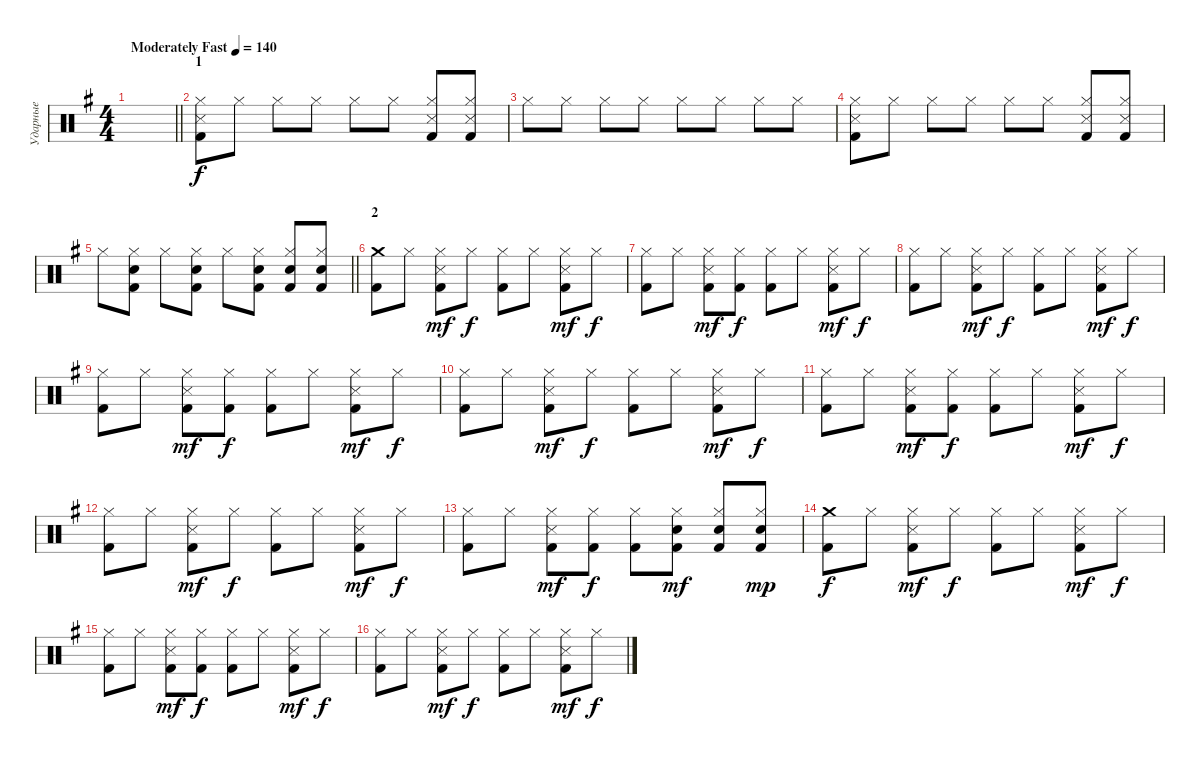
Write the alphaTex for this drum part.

\track ("Ударные" "Ударные") {instrument percussion}
\staff {score}
\articulation defaults
\ts (4 4)
\tempo (140 "Moderately Fast")
\clef neutral
\barLineRight lightlight
\ks g
|
\section ("" "1")
("Kick (hit) 2" "Hi-Hat (closed)" "Metronome (hit)").8 "Hi-Hat (closed)".8 "Hi-Hat (closed)".8 "Hi-Hat (closed)".8 "Hi-Hat (closed)".8 "Hi-Hat (closed)".8 ("Kick (hit) 2" "Hi-Hat (closed)" "Metronome (hit)").8 ("Kick (hit) 2" "Hi-Hat (closed)" "Metronome (hit)").8 |
"Hi-Hat (closed)".8 "Hi-Hat (closed)".8 "Hi-Hat (closed)".8 "Hi-Hat (closed)".8 "Hi-Hat (closed)".8 "Hi-Hat (closed)".8 "Hi-Hat (closed)".8 "Hi-Hat (closed)".8 |
("Kick (hit) 2" "Hi-Hat (closed)" "Metronome (hit)").8 "Hi-Hat (closed)".8 "Hi-Hat (closed)".8 "Hi-Hat (closed)".8 "Hi-Hat (closed)".8 "Hi-Hat (closed)".8 ("Kick (hit) 2" "Hi-Hat (closed)" "Metronome (hit)").8 ("Kick (hit) 2" "Hi-Hat (closed)" "Metronome (hit)").8 |
\barLineRight lightlight "Hi-Hat (closed)".8
("Kick (hit) 2" "Snare (hit) 2" "Hi-Hat (closed)").8 "Hi-Hat (closed)".8 ("Kick (hit) 2" "Snare (hit) 2" "Hi-Hat (closed)").8 "Hi-Hat (closed)".8 ("Kick (hit) 2" "Snare (hit) 2" "Hi-Hat (closed)").8 ("Kick (hit) 2" "Snare (hit) 2" "Hi-Hat (closed)").8 ("Kick (hit) 2" "Snare (hit) 2" "Hi-Hat (closed)").8 |
\section ("" "2")
("Kick (hit) 2" "Crash medium (hit)").8{dy f} "Hi-Hat (closed)".8 ("Kick (hit) 2" "Metronome (hit)" "Hi-Hat (closed)").8{dy mf} "Hi-Hat (closed)".8{dy f} ("Kick (hit) 2" "Hi-Hat (closed)").8 "Hi-Hat (closed)".8 ("Kick (hit) 2" "Metronome (hit)" "Hi-Hat (closed)").8{dy mf} "Hi-Hat (closed)".8{dy f} |
("Kick (hit) 2" "Hi-Hat (closed)").8 "Hi-Hat (closed)".8 ("Kick (hit) 2" "Metronome (hit)" "Hi-Hat (closed)").8{dy mf} ("Kick (hit) 2" "Hi-Hat (closed)").8{dy f} ("Kick (hit) 2" "Hi-Hat (closed)").8 "Hi-Hat (closed)".8 ("Kick (hit) 2" "Metronome (hit)" "Hi-Hat (closed)").8{dy mf} "Hi-Hat (closed)".8{dy f} |
("Kick (hit) 2" "Hi-Hat (closed)").8 "Hi-Hat (closed)".8 ("Kick (hit) 2" "Metronome (hit)" "Hi-Hat (closed)").8{dy mf} "Hi-Hat (closed)".8{dy f} ("Kick (hit) 2" "Hi-Hat (closed)").8 "Hi-Hat (closed)".8 ("Kick (hit) 2" "Metronome (hit)" "Hi-Hat (closed)").8{dy mf} "Hi-Hat (closed)".8{dy f} |
("Kick (hit) 2" "Hi-Hat (closed)").8 "Hi-Hat (closed)".8 ("Kick (hit) 2" "Metronome (hit)" "Hi-Hat (closed)").8{dy mf} ("Kick (hit) 2" "Hi-Hat (closed)").8{dy f} ("Kick (hit) 2" "Hi-Hat (closed)").8 "Hi-Hat (closed)".8 ("Kick (hit) 2" "Metronome (hit)" "Hi-Hat (closed)").8{dy mf} "Hi-Hat (closed)".8{dy f} |
("Kick (hit) 2" "Hi-Hat (closed)").8 "Hi-Hat (closed)".8 ("Kick (hit) 2" "Metronome (hit)" "Hi-Hat (closed)").8{dy mf} "Hi-Hat (closed)".8{dy f} ("Kick (hit) 2" "Hi-Hat (closed)").8 "Hi-Hat (closed)".8 ("Kick (hit) 2" "Metronome (hit)" "Hi-Hat (closed)").8{dy mf} "Hi-Hat (closed)".8{dy f} |
("Kick (hit) 2" "Hi-Hat (closed)").8 "Hi-Hat (closed)".8 ("Kick (hit) 2" "Metronome (hit)" "Hi-Hat (closed)").8{dy mf} ("Kick (hit) 2" "Hi-Hat (closed)").8{dy f} ("Kick (hit) 2" "Hi-Hat (closed)").8 "Hi-Hat (closed)".8 ("Kick (hit) 2" "Metronome (hit)" "Hi-Hat (closed)").8{dy mf} "Hi-Hat (closed)".8{dy f} |
("Kick (hit) 2" "Hi-Hat (closed)").8 "Hi-Hat (closed)".8 ("Kick (hit) 2" "Metronome (hit)" "Hi-Hat (closed)").8{dy mf} "Hi-Hat (closed)".8{dy f} ("Kick (hit) 2" "Hi-Hat (closed)").8 "Hi-Hat (closed)".8 ("Kick (hit) 2" "Metronome (hit)" "Hi-Hat (closed)").8{dy mf} "Hi-Hat (closed)".8{dy f} |
("Kick (hit) 2" "Hi-Hat (closed)").8 "Hi-Hat (closed)".8 ("Kick (hit) 2" "Metronome (hit)" "Hi-Hat (closed)").8{dy mf} ("Kick (hit) 2" "Hi-Hat (closed)").8{dy f} ("Kick (hit) 2" "Hi-Hat (closed)").8 ("Kick (hit) 2" "Snare (hit) 2" "Hi-Hat (closed)").8{dy mf} ("Kick (hit) 2" "Snare (hit) 2" "Hi-Hat (closed)").8 ("Kick (hit) 2" "Snare (hit) 2" "Hi-Hat (closed)").8{dy mp} |
("Kick (hit) 2" "Crash medium (hit)").8{dy f} "Hi-Hat (closed)".8 ("Kick (hit) 2" "Metronome (hit)" "Hi-Hat (closed)").8{dy mf} "Hi-Hat (closed)".8{dy f} ("Kick (hit) 2" "Hi-Hat (closed)").8 "Hi-Hat (closed)".8 ("Kick (hit) 2" "Metronome (hit)" "Hi-Hat (closed)").8{dy mf} "Hi-Hat (closed)".8{dy f} |
("Kick (hit) 2" "Hi-Hat (closed)").8 "Hi-Hat (closed)".8 ("Kick (hit) 2" "Metronome (hit)" "Hi-Hat (closed)").8{dy mf} ("Kick (hit) 2" "Hi-Hat (closed)").8{dy f} ("Kick (hit) 2" "Hi-Hat (closed)").8 "Hi-Hat (closed)".8 ("Kick (hit) 2" "Metronome (hit)" "Hi-Hat (closed)").8{dy mf} "Hi-Hat (closed)".8{dy f} |
("Kick (hit) 2" "Hi-Hat (closed)").8 "Hi-Hat (closed)".8 ("Kick (hit) 2" "Metronome (hit)" "Hi-Hat (closed)").8{dy mf} "Hi-Hat (closed)".8{dy f} ("Kick (hit) 2" "Hi-Hat (closed)").8 "Hi-Hat (closed)".8 ("Kick (hit) 2" "Metronome (hit)" "Hi-Hat (closed)").8{dy mf} "Hi-Hat (closed)".8{dy f}
